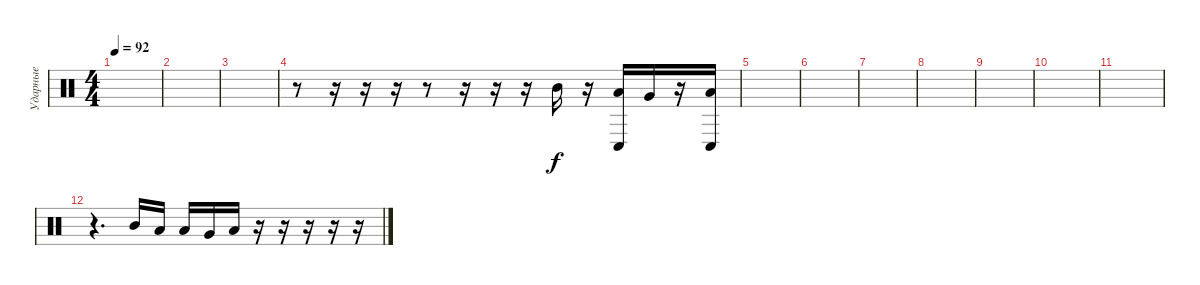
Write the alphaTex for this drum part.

\track ("Ударные" "Ударные") {instrument percussion}
\staff {score}
\articulation defaults
\ts (4 4)
\tempo 92
\clef neutral
\ks c
|
|
|
r.8 r.16 r.16 r.16 r.8 r.16 r.16 r.16 "Mid Tom (hit)".16 r.16 ("Conga low (hit)" "Low Tom (hit)").16 "Very Low Tom (hit)".16 r.16 ("Conga low (hit)" "Low Floor Tom (hit)").16 |
|
|
|
|
|
|
|
r.4{d} "Mid Tom (hit)".16 "Low Tom (hit)".16 "Low Tom (hit)".16 "Very Low Tom (hit)".16 "Low Floor Tom (hit)".16 r.16 r.16 r.16 r.16 r.16
